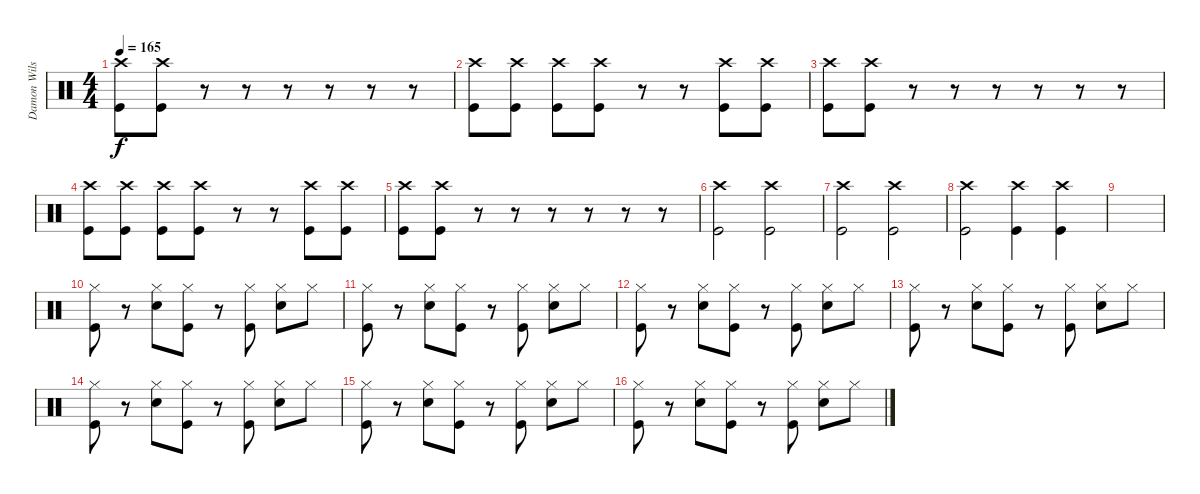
\track ("Damon Wilson" "Damon Wils") {instrument percussion}
\staff {score}
\articulation defaults
\ts (4 4)
\tempo 165
\clef neutral
\ks c
("Crash high (hit)" "Kick (hit)").8{dy f} ("Crash high (hit)" "Kick (hit)").8 r.8 r.8 r.8 r.8 r.8 r.8 |
("Crash high (hit)" "Kick (hit)").8 ("Crash high (hit)" "Kick (hit)").8 ("Crash high (hit)" "Kick (hit)").8 ("Crash high (hit)" "Kick (hit)").8 r.8 r.8 ("Crash high (hit)" "Kick (hit)").8 ("Crash high (hit)" "Kick (hit)").8 |
("Crash high (hit)" "Kick (hit)").8 ("Crash high (hit)" "Kick (hit)").8 r.8 r.8 r.8 r.8 r.8 r.8 |
("Crash high (hit)" "Kick (hit)").8 ("Crash high (hit)" "Kick (hit)").8 ("Crash high (hit)" "Kick (hit)").8 ("Crash high (hit)" "Kick (hit)").8 r.8 r.8 ("Crash high (hit)" "Kick (hit)").8 ("Crash high (hit)" "Kick (hit)").8 |
("Crash high (hit)" "Kick (hit)").8 ("Crash high (hit)" "Kick (hit)").8 r.8 r.8 r.8 r.8 r.8 r.8 |
("Crash high (hit)" "Kick (hit)").2 ("Crash high (hit)" "Kick (hit)").2 |
("Crash high (hit)" "Kick (hit)").2 ("Crash high (hit)" "Kick (hit)").2 |
("Crash high (hit)" "Kick (hit)").2 ("Crash high (hit)" "Kick (hit)").4 ("Crash high (hit)" "Kick (hit)").4 |
|
("Hi-Hat (closed)" "Kick (hit)").8 r.8 ("Hi-Hat (closed)" "Snare (hit) 2").8 ("Hi-Hat (closed)" "Kick (hit)").8 r.8 ("Hi-Hat (closed)" "Kick (hit)").8 ("Hi-Hat (closed)" "Snare (hit) 2").8 "Hi-Hat (closed)".8 |
("Hi-Hat (closed)" "Kick (hit)").8 r.8 ("Hi-Hat (closed)" "Snare (hit) 2").8 ("Hi-Hat (closed)" "Kick (hit)").8 r.8 ("Hi-Hat (closed)" "Kick (hit)").8 ("Hi-Hat (closed)" "Snare (hit) 2").8 "Hi-Hat (closed)".8 |
("Hi-Hat (closed)" "Kick (hit)").8 r.8 ("Hi-Hat (closed)" "Snare (hit) 2").8 ("Hi-Hat (closed)" "Kick (hit)").8 r.8 ("Hi-Hat (closed)" "Kick (hit)").8 ("Hi-Hat (closed)" "Snare (hit) 2").8 "Hi-Hat (closed)".8 |
("Hi-Hat (closed)" "Kick (hit)").8 r.8 ("Hi-Hat (closed)" "Snare (hit) 2").8 ("Hi-Hat (closed)" "Kick (hit)").8 r.8 ("Hi-Hat (closed)" "Kick (hit)").8 ("Hi-Hat (closed)" "Snare (hit) 2").8 "Hi-Hat (closed)".8 |
("Hi-Hat (closed)" "Kick (hit)").8 r.8 ("Hi-Hat (closed)" "Snare (hit) 2").8 ("Hi-Hat (closed)" "Kick (hit)").8 r.8 ("Hi-Hat (closed)" "Kick (hit)").8 ("Hi-Hat (closed)" "Snare (hit) 2").8 "Hi-Hat (closed)".8 |
("Hi-Hat (closed)" "Kick (hit)").8 r.8 ("Hi-Hat (closed)" "Snare (hit) 2").8 ("Hi-Hat (closed)" "Kick (hit)").8 r.8 ("Hi-Hat (closed)" "Kick (hit)").8 ("Hi-Hat (closed)" "Snare (hit) 2").8 "Hi-Hat (closed)".8 |
("Hi-Hat (closed)" "Kick (hit)").8 r.8 ("Hi-Hat (closed)" "Snare (hit) 2").8 ("Hi-Hat (closed)" "Kick (hit)").8 r.8 ("Hi-Hat (closed)" "Kick (hit)").8 ("Hi-Hat (closed)" "Snare (hit) 2").8 "Hi-Hat (closed)".8
